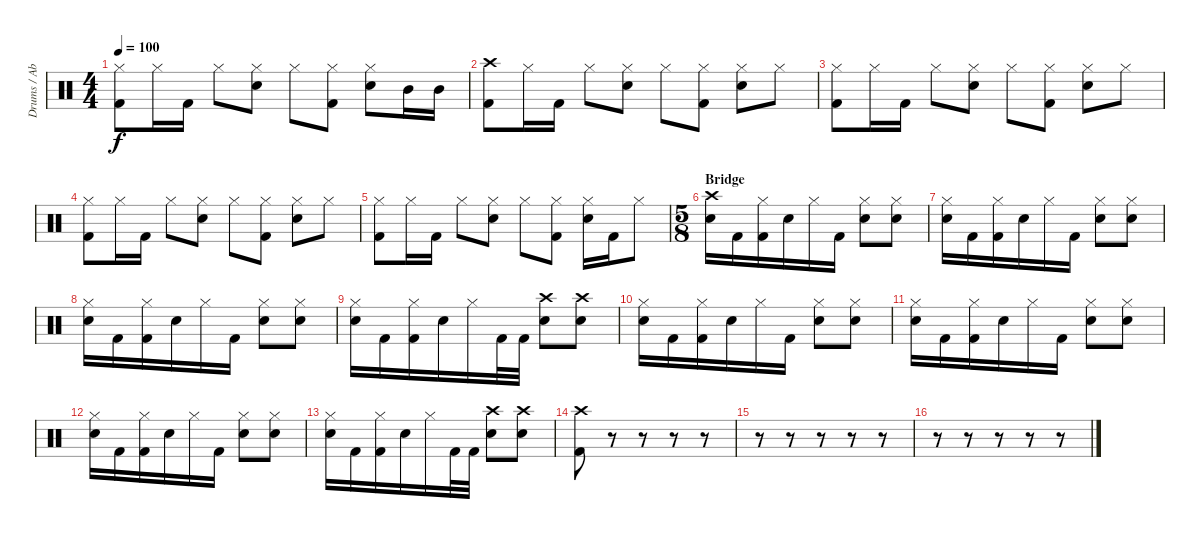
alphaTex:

\track ("Drums / Abe Cunningham" "Drums / Ab") {instrument percussion}
\staff {score}
\articulation defaults
\ts (4 4)
\tempo 100
\clef neutral
\ks c
("Hi-Hat (closed)" "Kick (hit) 2").8{dy f} "Hi-Hat (closed)".16 "Kick (hit) 2".16 "Hi-Hat (closed)".8 ("Hi-Hat (closed)" "Electric Snare (hit)").8 "Hi-Hat (closed)".8 ("Hi-Hat (closed)" "Kick (hit) 2").8 ("Hi-Hat (closed)" "Electric Snare (hit)").8 "Mid Tom (hit)".16 "Mid Tom (hit)".16 |
("Crash high (hit)" "Kick (hit) 2").8 "Hi-Hat (closed)".16 "Kick (hit) 2".16 "Hi-Hat (closed)".8 ("Hi-Hat (closed)" "Electric Snare (hit)").8 "Hi-Hat (closed)".8 ("Hi-Hat (closed)" "Kick (hit) 2").8 ("Hi-Hat (closed)" "Electric Snare (hit)").8 "Hi-Hat (closed)".8 |
("Hi-Hat (closed)" "Kick (hit) 2").8 "Hi-Hat (closed)".16 "Kick (hit) 2".16 "Hi-Hat (closed)".8 ("Hi-Hat (closed)" "Electric Snare (hit)").8 "Hi-Hat (closed)".8 ("Hi-Hat (closed)" "Kick (hit) 2").8 ("Hi-Hat (closed)" "Electric Snare (hit)").8 "Hi-Hat (closed)".8 |
("Hi-Hat (closed)" "Kick (hit) 2").8 "Hi-Hat (closed)".16 "Kick (hit) 2".16 "Hi-Hat (closed)".8 ("Hi-Hat (closed)" "Electric Snare (hit)").8 "Hi-Hat (closed)".8 ("Hi-Hat (closed)" "Kick (hit) 2").8 ("Hi-Hat (closed)" "Electric Snare (hit)").8 "Hi-Hat (closed)".8 |
("Hi-Hat (closed)" "Kick (hit) 2").8 "Hi-Hat (closed)".16 "Kick (hit) 2".16 "Hi-Hat (closed)".8 ("Hi-Hat (closed)" "Electric Snare (hit)").8 "Hi-Hat (closed)".8 ("Hi-Hat (closed)" "Kick (hit) 2").8 ("Hi-Hat (closed)" "Electric Snare (hit)").16 "Kick (hit) 2".16 "Hi-Hat (closed)".8 |
\ts (5 8)
\section ("" "Bridge")
("Crash high (hit)" "Electric Snare (hit)").16 "Kick (hit) 2".16 ("Hi-Hat (closed)" "Kick (hit) 2").16 "Electric Snare (hit)".16 "Hi-Hat (closed)".16 "Kick (hit) 2".16 ("Hi-Hat (closed)" "Electric Snare (hit)").8 ("Hi-Hat (closed)" "Electric Snare (hit)").8 |
("Hi-Hat (closed)" "Electric Snare (hit)").16 "Kick (hit) 2".16 ("Hi-Hat (closed)" "Kick (hit) 2").16 "Electric Snare (hit)".16 "Hi-Hat (closed)".16 "Kick (hit) 2".16 ("Hi-Hat (closed)" "Electric Snare (hit)").8 ("Hi-Hat (closed)" "Electric Snare (hit)").8 |
("Hi-Hat (closed)" "Electric Snare (hit)").16 "Kick (hit) 2".16 ("Hi-Hat (closed)" "Kick (hit) 2").16 "Electric Snare (hit)".16 "Hi-Hat (closed)".16 "Kick (hit) 2".16 ("Hi-Hat (closed)" "Electric Snare (hit)").8 ("Hi-Hat (closed)" "Electric Snare (hit)").8 |
("Hi-Hat (closed)" "Electric Snare (hit)").16 "Kick (hit) 2".16 ("Hi-Hat (closed)" "Kick (hit) 2").16 "Electric Snare (hit)".16 "Hi-Hat (closed)".16 "Kick (hit) 2".32 "Kick (hit) 2".32 ("Crash high (hit)" "Electric Snare (hit)").8 ("Crash high (hit)" "Electric Snare (hit)").8 |
("Hi-Hat (closed)" "Electric Snare (hit)").16 "Kick (hit) 2".16 ("Hi-Hat (closed)" "Kick (hit) 2").16 "Electric Snare (hit)".16 "Hi-Hat (closed)".16 "Kick (hit) 2".16 ("Hi-Hat (closed)" "Electric Snare (hit)").8 ("Hi-Hat (closed)" "Electric Snare (hit)").8 |
("Hi-Hat (closed)" "Electric Snare (hit)").16 "Kick (hit) 2".16 ("Hi-Hat (closed)" "Kick (hit) 2").16 "Electric Snare (hit)".16 "Hi-Hat (closed)".16 "Kick (hit) 2".16 ("Hi-Hat (closed)" "Electric Snare (hit)").8 ("Hi-Hat (closed)" "Electric Snare (hit)").8 |
("Hi-Hat (closed)" "Electric Snare (hit)").16 "Kick (hit) 2".16 ("Hi-Hat (closed)" "Kick (hit) 2").16 "Electric Snare (hit)".16 "Hi-Hat (closed)".16 "Kick (hit) 2".16 ("Hi-Hat (closed)" "Electric Snare (hit)").8 ("Hi-Hat (closed)" "Electric Snare (hit)").8 |
("Hi-Hat (closed)" "Electric Snare (hit)").16 "Kick (hit) 2".16 ("Hi-Hat (closed)" "Kick (hit) 2").16 "Electric Snare (hit)".16 "Hi-Hat (closed)".16 "Kick (hit) 2".32 "Kick (hit) 2".32 ("Crash high (hit)" "Electric Snare (hit)").8 ("Crash high (hit)" "Electric Snare (hit)").8 |
("Crash high (hit)" "Kick (hit) 2").8 r.8 r.8 r.8 r.8 |
r.8 r.8 r.8 r.8 r.8 |
r.8 r.8 r.8 r.8 r.8
